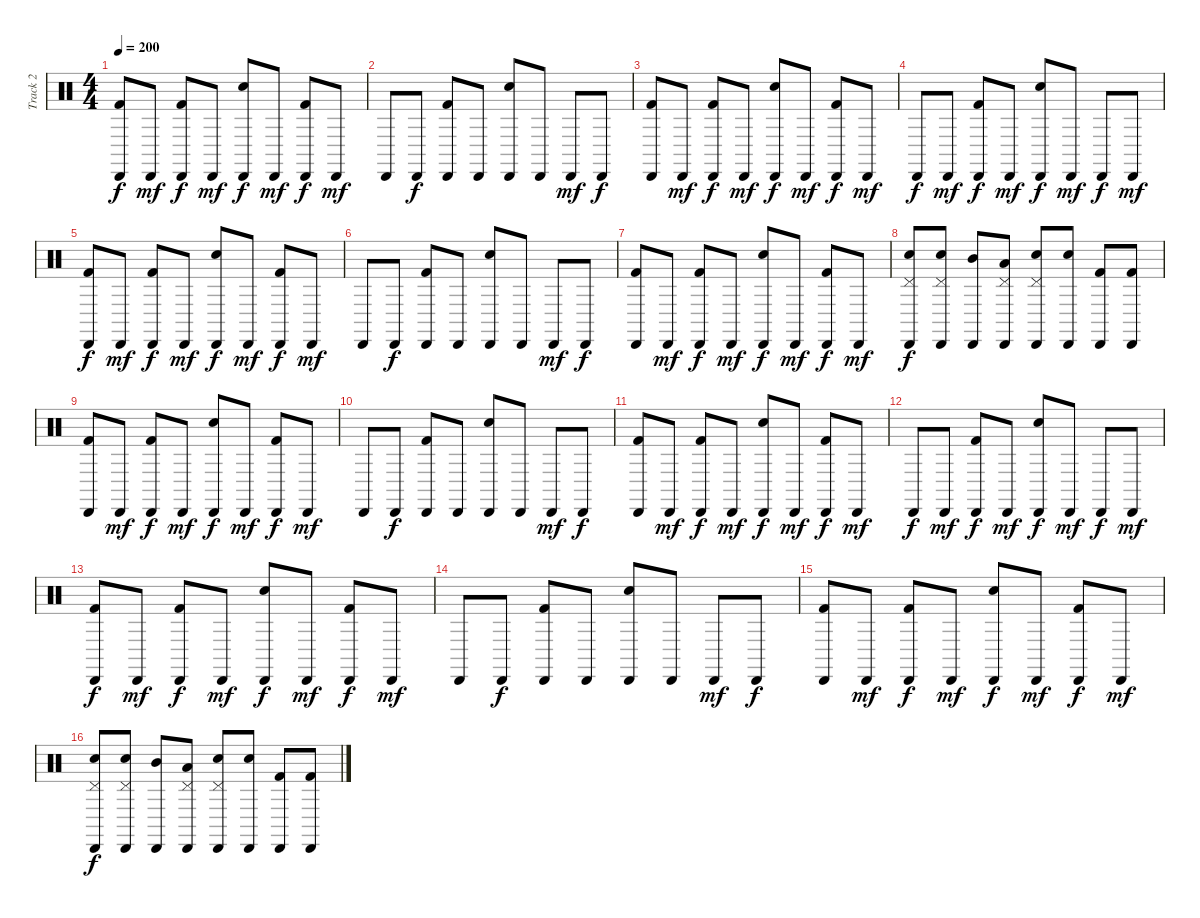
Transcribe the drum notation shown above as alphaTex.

\track ("Track 2" "Track 2") {instrument percussion}
\staff {score}
\articulation defaults
\ts (4 4)
\tempo 200
\clef neutral
\ks c
("Cabasa (hit)" "Kick (hit) 2").8{dy f} "Cabasa (hit)".8{dy mf} ("Cabasa (hit)" "Kick (hit) 2").8{dy f} "Cabasa (hit)".8{dy mf} ("Cabasa (hit)" "Snare (hit) 2").8{dy f} "Cabasa (hit)".8{dy mf} ("Cabasa (hit)" "Kick (hit) 2").8{dy f} "Cabasa (hit)".8{dy mf} |
"Cabasa (hit)".8 "Cabasa (hit)".8{dy f} ("Cabasa (hit)" "Kick (hit) 2").8 "Cabasa (hit)".8 ("Cabasa (hit)" "Snare (hit) 2").8 "Cabasa (hit)".8 "Cabasa (hit)".8{dy mf} "Cabasa (hit)".8{dy f} |
("Cabasa (hit)" "Kick (hit) 2").8 "Cabasa (hit)".8{dy mf} ("Cabasa (hit)" "Kick (hit) 2").8{dy f} "Cabasa (hit)".8{dy mf} ("Cabasa (hit)" "Snare (hit) 2").8{dy f} "Cabasa (hit)".8{dy mf} ("Cabasa (hit)" "Kick (hit) 2").8{dy f} "Cabasa (hit)".8{dy mf} |
"Cabasa (hit)".8{dy f} "Cabasa (hit)".8{dy mf} ("Cabasa (hit)" "Kick (hit) 2").8{dy f} "Cabasa (hit)".8{dy mf} ("Cabasa (hit)" "Snare (hit) 2").8{dy f} "Cabasa (hit)".8{dy mf} "Cabasa (hit)".8{dy f} "Cabasa (hit)".8{dy mf} |
("Cabasa (hit)" "Kick (hit) 2").8{dy f} "Cabasa (hit)".8{dy mf} ("Cabasa (hit)" "Kick (hit) 2").8{dy f} "Cabasa (hit)".8{dy mf} ("Cabasa (hit)" "Snare (hit) 2").8{dy f} "Cabasa (hit)".8{dy mf} ("Cabasa (hit)" "Kick (hit) 2").8{dy f} "Cabasa (hit)".8{dy mf} |
"Cabasa (hit)".8 "Cabasa (hit)".8{dy f} ("Cabasa (hit)" "Kick (hit) 2").8 "Cabasa (hit)".8 ("Cabasa (hit)" "Snare (hit) 2").8 "Cabasa (hit)".8 "Cabasa (hit)".8{dy mf} "Cabasa (hit)".8{dy f} |
("Cabasa (hit)" "Kick (hit) 2").8 "Cabasa (hit)".8{dy mf} ("Cabasa (hit)" "Kick (hit) 2").8{dy f} "Cabasa (hit)".8{dy mf} ("Cabasa (hit)" "Snare (hit) 2").8{dy f} "Cabasa (hit)".8{dy mf} ("Cabasa (hit)" "Kick (hit) 2").8{dy f} "Cabasa (hit)".8{dy mf} |
("Cabasa (hit)" "Pedal Hi-Hat (hit)" "Snare (hit) 2").8{dy f} ("Cabasa (hit)" "Pedal Hi-Hat (hit)" "Snare (hit) 2").8 ("Cabasa (hit)" "Mid Tom (hit)").8 ("Cabasa (hit)" "Pedal Hi-Hat (hit)" "Low Floor Tom (hit)").8 ("Cabasa (hit)" "Pedal Hi-Hat (hit)" "Snare (hit) 2").8 ("Cabasa (hit)" "Snare (hit) 2").8 ("Cabasa (hit)" "Kick (hit) 2").8 ("Cabasa (hit)" "Kick (hit) 2").8 |
("Cabasa (hit)" "Kick (hit) 2").8 "Cabasa (hit)".8{dy mf} ("Cabasa (hit)" "Kick (hit) 2").8{dy f} "Cabasa (hit)".8{dy mf} ("Cabasa (hit)" "Snare (hit) 2").8{dy f} "Cabasa (hit)".8{dy mf} ("Cabasa (hit)" "Kick (hit) 2").8{dy f} "Cabasa (hit)".8{dy mf} |
"Cabasa (hit)".8 "Cabasa (hit)".8{dy f} ("Cabasa (hit)" "Kick (hit) 2").8 "Cabasa (hit)".8 ("Cabasa (hit)" "Snare (hit) 2").8 "Cabasa (hit)".8 "Cabasa (hit)".8{dy mf} "Cabasa (hit)".8{dy f} |
("Cabasa (hit)" "Kick (hit) 2").8 "Cabasa (hit)".8{dy mf} ("Cabasa (hit)" "Kick (hit) 2").8{dy f} "Cabasa (hit)".8{dy mf} ("Cabasa (hit)" "Snare (hit) 2").8{dy f} "Cabasa (hit)".8{dy mf} ("Cabasa (hit)" "Kick (hit) 2").8{dy f} "Cabasa (hit)".8{dy mf} |
"Cabasa (hit)".8{dy f} "Cabasa (hit)".8{dy mf} ("Cabasa (hit)" "Kick (hit) 2").8{dy f} "Cabasa (hit)".8{dy mf} ("Cabasa (hit)" "Snare (hit) 2").8{dy f} "Cabasa (hit)".8{dy mf} "Cabasa (hit)".8{dy f} "Cabasa (hit)".8{dy mf} |
("Cabasa (hit)" "Kick (hit) 2").8{dy f} "Cabasa (hit)".8{dy mf} ("Cabasa (hit)" "Kick (hit) 2").8{dy f} "Cabasa (hit)".8{dy mf} ("Cabasa (hit)" "Snare (hit) 2").8{dy f} "Cabasa (hit)".8{dy mf} ("Cabasa (hit)" "Kick (hit) 2").8{dy f} "Cabasa (hit)".8{dy mf} |
"Cabasa (hit)".8 "Cabasa (hit)".8{dy f} ("Cabasa (hit)" "Kick (hit) 2").8 "Cabasa (hit)".8 ("Cabasa (hit)" "Snare (hit) 2").8 "Cabasa (hit)".8 "Cabasa (hit)".8{dy mf} "Cabasa (hit)".8{dy f} |
("Cabasa (hit)" "Kick (hit) 2").8 "Cabasa (hit)".8{dy mf} ("Cabasa (hit)" "Kick (hit) 2").8{dy f} "Cabasa (hit)".8{dy mf} ("Cabasa (hit)" "Snare (hit) 2").8{dy f} "Cabasa (hit)".8{dy mf} ("Cabasa (hit)" "Kick (hit) 2").8{dy f} "Cabasa (hit)".8{dy mf} |
("Cabasa (hit)" "Pedal Hi-Hat (hit)" "Snare (hit) 2").8{dy f} ("Cabasa (hit)" "Pedal Hi-Hat (hit)" "Snare (hit) 2").8 ("Cabasa (hit)" "Mid Tom (hit)").8 ("Cabasa (hit)" "Pedal Hi-Hat (hit)" "Low Floor Tom (hit)").8 ("Cabasa (hit)" "Pedal Hi-Hat (hit)" "Snare (hit) 2").8 ("Cabasa (hit)" "Snare (hit) 2").8 ("Cabasa (hit)" "Kick (hit) 2").8 ("Cabasa (hit)" "Kick (hit) 2").8
